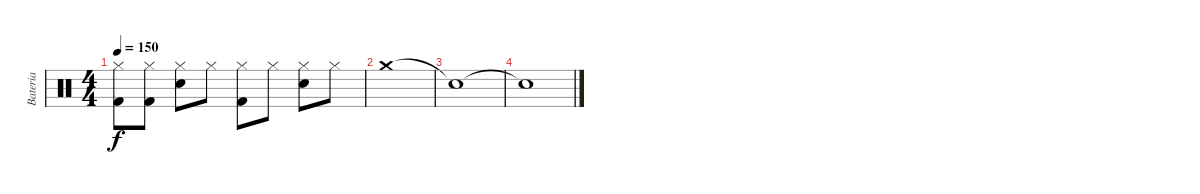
\track ("Bateria" "Bateria") {instrument percussion}
\staff {score}
\articulation defaults
\ts (4 4)
\tempo 150
\clef neutral
\ks c
("Hi-Hat (closed)" "Kick (hit) 2").8{dy f} ("Hi-Hat (closed)" "Kick (hit) 2").8 ("Hi-Hat (closed)" "Snare (hit) 2").8 "Hi-Hat (closed)".8 ("Hi-Hat (closed)" "Kick (hit) 2").8 "Hi-Hat (closed)".8 ("Hi-Hat (closed)" "Snare (hit) 2").8 "Hi-Hat (closed)".8 |
"Crash medium (hit)".1 |
"Snare (hit)"{t}.1 |
"Snare (hit)"{t}.1
